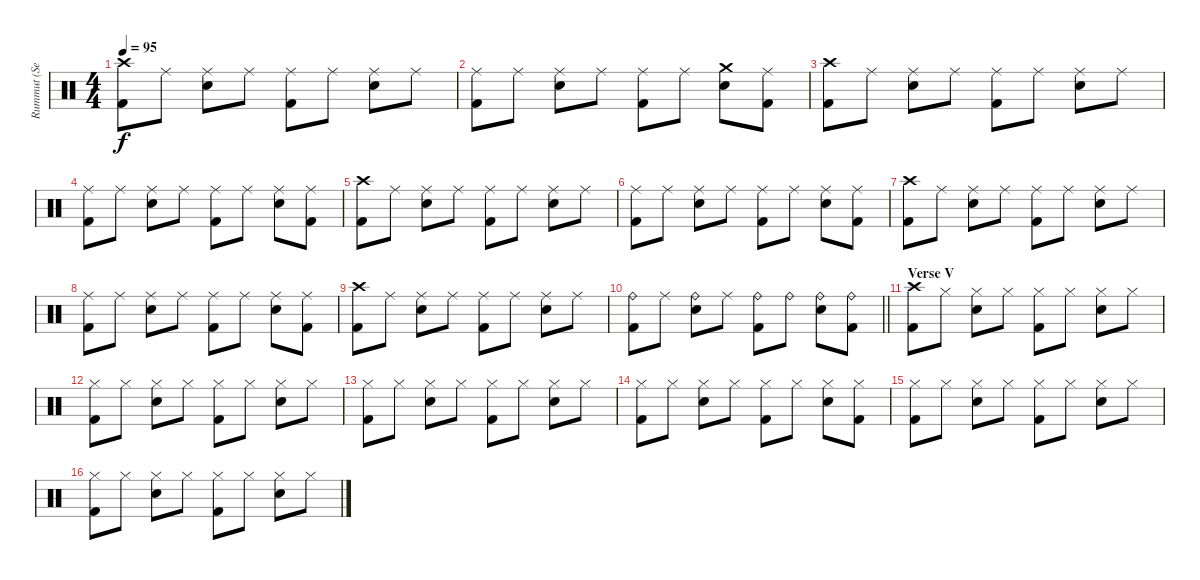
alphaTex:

\track ("Rummut (Seppo Pohjolainen)" "Rummut (Se") {instrument percussion}
\staff {score}
\articulation defaults
\ts (4 4)
\tempo 95
\clef neutral
\ks c
("Crash high (hit)" "Kick (hit) 2").8{dy f} "Ride (middle)".8 ("Ride (middle)" "Snare (hit) 2").8 "Ride (middle)".8 ("Ride (middle)" "Kick (hit) 2").8 "Ride (middle)".8 ("Ride (middle)" "Snare (hit) 2").8 "Ride (middle)".8 |
("Ride (middle)" "Kick (hit) 2").8 "Ride (middle)".8 ("Ride (middle)" "Snare (hit) 2").8 "Ride (middle)".8 ("Ride (middle)" "Kick (hit) 2").8 "Ride (middle)".8 ("Crash medium (hit)" "Snare (hit) 2").8 ("Ride (middle)" "Kick (hit) 2").8 |
("Crash high (hit)" "Kick (hit) 2").8 "Ride (middle)".8 ("Ride (middle)" "Snare (hit) 2").8 "Ride (middle)".8 ("Ride (middle)" "Kick (hit) 2").8 "Ride (middle)".8 ("Ride (middle)" "Snare (hit) 2").8 "Ride (middle)".8 |
("Ride (middle)" "Kick (hit) 2").8 "Ride (middle)".8 ("Ride (middle)" "Snare (hit) 2").8 "Ride (middle)".8 ("Ride (middle)" "Kick (hit) 2").8 "Ride (middle)".8 ("Ride (middle)" "Snare (hit) 2").8 ("Ride (middle)" "Kick (hit) 2").8 |
("Crash high (hit)" "Kick (hit) 2").8 "Ride (middle)".8 ("Ride (middle)" "Snare (hit) 2").8 "Ride (middle)".8 ("Ride (middle)" "Kick (hit) 2").8 "Ride (middle)".8 ("Ride (middle)" "Snare (hit) 2").8 "Ride (middle)".8 |
("Ride (middle)" "Kick (hit) 2").8 "Ride (middle)".8 ("Ride (middle)" "Snare (hit) 2").8 "Ride (middle)".8 ("Ride (middle)" "Kick (hit) 2").8 "Ride (middle)".8 ("Ride (middle)" "Snare (hit) 2").8 ("Ride (middle)" "Kick (hit) 2").8 |
("Crash high (hit)" "Kick (hit) 2").8 "Ride (middle)".8 ("Ride (middle)" "Snare (hit) 2").8 "Ride (middle)".8 ("Ride (middle)" "Kick (hit) 2").8 "Ride (middle)".8 ("Ride (middle)" "Snare (hit) 2").8 "Ride (middle)".8 |
("Ride (middle)" "Kick (hit) 2").8 "Ride (middle)".8 ("Ride (middle)" "Snare (hit) 2").8 "Ride (middle)".8 ("Ride (middle)" "Kick (hit) 2").8 "Ride (middle)".8 ("Ride (middle)" "Snare (hit) 2").8 ("Ride (middle)" "Kick (hit) 2").8 |
("Crash high (hit)" "Kick (hit) 2").8 "Ride (middle)".8 ("Ride (middle)" "Snare (hit) 2").8 "Ride (middle)".8 ("Ride (middle)" "Kick (hit) 2").8 "Ride (middle)".8 ("Ride (middle)" "Snare (hit) 2").8 "Ride (middle)".8 |
\barLineRight lightlight
("Ride (bell)" "Kick (hit) 2").8 "Ride (middle)".8 ("Ride (bell)" "Snare (hit) 2").8 "Ride (middle)".8 ("Ride (bell)" "Kick (hit) 2").8 "Ride (bell)".8 ("Ride (bell)" "Snare (hit) 2").8 ("Ride (bell)" "Kick (hit) 2").8 |
\section ("" "Verse V")
("Crash high (hit)" "Kick (hit) 2").8 "Hi-Hat (closed)".8 ("Hi-Hat (closed)" "Snare (hit) 2").8 "Hi-Hat (closed)".8 ("Hi-Hat (closed)" "Kick (hit) 2").8 "Hi-Hat (closed)".8 ("Hi-Hat (closed)" "Snare (hit) 2").8 "Hi-Hat (closed)".8 |
("Hi-Hat (closed)" "Kick (hit) 2").8 "Hi-Hat (closed)".8 ("Hi-Hat (closed)" "Snare (hit) 2").8 "Hi-Hat (closed)".8 ("Hi-Hat (closed)" "Kick (hit) 2").8 "Hi-Hat (closed)".8 ("Hi-Hat (closed)" "Snare (hit) 2").8 "Hi-Hat (closed)".8 |
("Hi-Hat (closed)" "Kick (hit) 2").8 "Hi-Hat (closed)".8 ("Hi-Hat (closed)" "Snare (hit) 2").8 "Hi-Hat (closed)".8 ("Hi-Hat (closed)" "Kick (hit) 2").8 "Hi-Hat (closed)".8 ("Hi-Hat (closed)" "Snare (hit) 2").8 "Hi-Hat (closed)".8 |
("Hi-Hat (closed)" "Kick (hit) 2").8 "Hi-Hat (closed)".8 ("Hi-Hat (closed)" "Snare (hit) 2").8 "Hi-Hat (closed)".8 ("Hi-Hat (closed)" "Kick (hit) 2").8 "Hi-Hat (closed)".8 ("Hi-Hat (closed)" "Snare (hit) 2").8 ("Hi-Hat (closed)" "Kick (hit) 2").8 |
("Hi-Hat (closed)" "Kick (hit) 2").8 "Hi-Hat (closed)".8 ("Hi-Hat (closed)" "Snare (hit) 2").8 "Hi-Hat (closed)".8 ("Hi-Hat (closed)" "Kick (hit) 2").8 "Hi-Hat (closed)".8 ("Hi-Hat (closed)" "Snare (hit) 2").8 "Hi-Hat (closed)".8 |
("Hi-Hat (closed)" "Kick (hit) 2").8 "Hi-Hat (closed)".8 ("Hi-Hat (closed)" "Snare (hit) 2").8 "Hi-Hat (closed)".8 ("Hi-Hat (closed)" "Kick (hit) 2").8 "Hi-Hat (closed)".8 ("Hi-Hat (closed)" "Snare (hit) 2").8 "Hi-Hat (closed)".8
